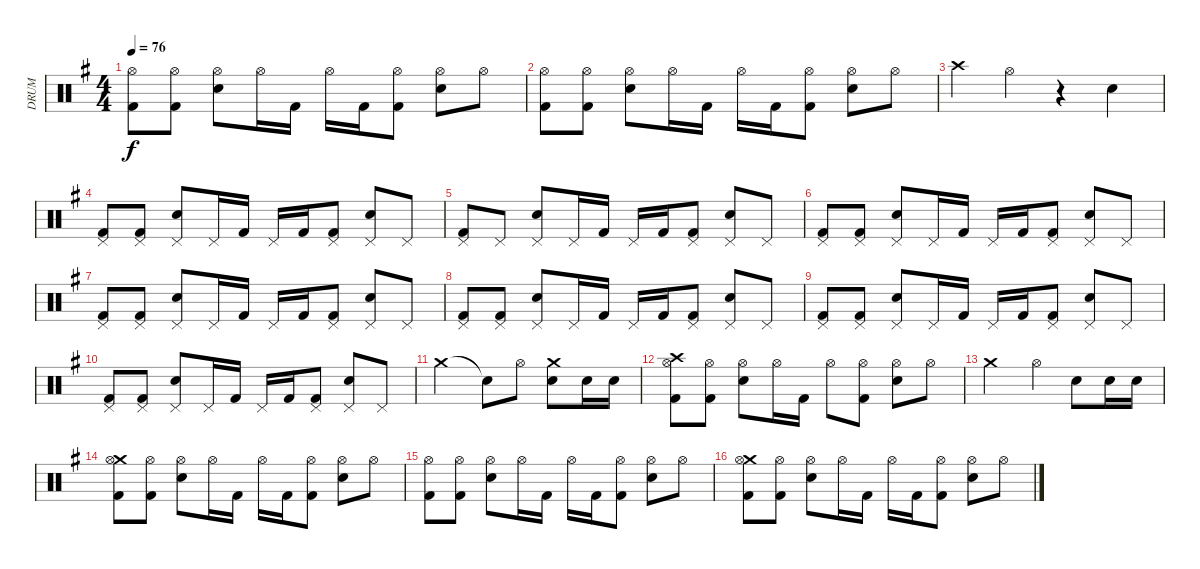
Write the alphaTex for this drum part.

\track ("DRUM" "DRUM") {instrument percussion}
\staff {score}
\articulation defaults
\ts (4 4)
\tempo 76
\clef neutral
\ks eminor
("Hi-Hat (open)" "Kick (hit) 2").8{dy f} ("Hi-Hat (open)" "Kick (hit) 2").8 ("Hi-Hat (open)" "Electric Snare (hit)").8 "Hi-Hat (open)".16 "Kick (hit) 2".16 "Hi-Hat (open)".16 "Kick (hit) 2".16 ("Hi-Hat (open)" "Kick (hit) 2").8 ("Hi-Hat (open)" "Electric Snare (hit)").8 "Hi-Hat (open)".8 |
("Hi-Hat (open)" "Kick (hit) 2").8 ("Hi-Hat (open)" "Kick (hit) 2").8 ("Hi-Hat (open)" "Electric Snare (hit)").8 "Hi-Hat (open)".16 "Kick (hit) 2".16 "Hi-Hat (open)".16 "Kick (hit) 2".16 ("Hi-Hat (open)" "Kick (hit) 2").8 ("Hi-Hat (open)" "Electric Snare (hit)").8 "Hi-Hat (open)".8 |
"Crash high (hit)".4 "Hi-Hat (open)".4 r.4 "Electric Snare (hit)".4 |
("Pedal Hi-Hat (hit)" "Kick (hit) 2").8 ("Pedal Hi-Hat (hit)" "Kick (hit) 2").8 ("Pedal Hi-Hat (hit)" "Electric Snare (hit)").8 "Pedal Hi-Hat (hit)".16 "Kick (hit) 2".16 "Pedal Hi-Hat (hit)".16 "Kick (hit) 2".16 ("Pedal Hi-Hat (hit)" "Kick (hit) 2").8 ("Pedal Hi-Hat (hit)" "Electric Snare (hit)").8 "Pedal Hi-Hat (hit)".8 |
("Pedal Hi-Hat (hit)" "Kick (hit) 2").8 "Pedal Hi-Hat (hit)".8 ("Pedal Hi-Hat (hit)" "Electric Snare (hit)").8 "Pedal Hi-Hat (hit)".16 "Kick (hit) 2".16 "Pedal Hi-Hat (hit)".16 "Kick (hit) 2".16 ("Pedal Hi-Hat (hit)" "Kick (hit) 2").8 ("Pedal Hi-Hat (hit)" "Electric Snare (hit)").8 "Pedal Hi-Hat (hit)".8 |
("Pedal Hi-Hat (hit)" "Kick (hit) 2").8 ("Pedal Hi-Hat (hit)" "Kick (hit) 2").8 ("Pedal Hi-Hat (hit)" "Electric Snare (hit)").8 "Pedal Hi-Hat (hit)".16 "Kick (hit) 2".16 "Pedal Hi-Hat (hit)".16 "Kick (hit) 2".16 ("Pedal Hi-Hat (hit)" "Kick (hit) 2").8 ("Pedal Hi-Hat (hit)" "Electric Snare (hit)").8 "Pedal Hi-Hat (hit)".8 |
("Pedal Hi-Hat (hit)" "Kick (hit) 2").8 ("Pedal Hi-Hat (hit)" "Kick (hit) 2").8 ("Pedal Hi-Hat (hit)" "Electric Snare (hit)").8 "Pedal Hi-Hat (hit)".16 "Kick (hit) 2".16 "Pedal Hi-Hat (hit)".16 "Kick (hit) 2".16 ("Pedal Hi-Hat (hit)" "Kick (hit) 2").8 ("Pedal Hi-Hat (hit)" "Electric Snare (hit)").8 "Pedal Hi-Hat (hit)".8 |
("Pedal Hi-Hat (hit)" "Kick (hit) 2").8 ("Pedal Hi-Hat (hit)" "Kick (hit) 2").8 ("Pedal Hi-Hat (hit)" "Electric Snare (hit)").8 "Pedal Hi-Hat (hit)".16 "Kick (hit) 2".16 "Pedal Hi-Hat (hit)".16 "Kick (hit) 2".16 ("Pedal Hi-Hat (hit)" "Kick (hit) 2").8 ("Pedal Hi-Hat (hit)" "Electric Snare (hit)").8 "Pedal Hi-Hat (hit)".8 |
("Pedal Hi-Hat (hit)" "Kick (hit) 2").8 ("Pedal Hi-Hat (hit)" "Kick (hit) 2").8 ("Pedal Hi-Hat (hit)" "Electric Snare (hit)").8 "Pedal Hi-Hat (hit)".16 "Kick (hit) 2".16 "Pedal Hi-Hat (hit)".16 "Kick (hit) 2".16 ("Pedal Hi-Hat (hit)" "Kick (hit) 2").8 ("Pedal Hi-Hat (hit)" "Electric Snare (hit)").8 "Pedal Hi-Hat (hit)".8 |
("Pedal Hi-Hat (hit)" "Kick (hit) 2").8 ("Pedal Hi-Hat (hit)" "Kick (hit) 2").8 ("Pedal Hi-Hat (hit)" "Electric Snare (hit)").8 "Pedal Hi-Hat (hit)".16 "Kick (hit) 2".16 "Pedal Hi-Hat (hit)".16 "Kick (hit) 2".16 ("Pedal Hi-Hat (hit)" "Kick (hit) 2").8 ("Pedal Hi-Hat (hit)" "Electric Snare (hit)").8 "Pedal Hi-Hat (hit)".8 |
"Crash medium (hit)".2 "Snare (hit)"{t}.8 "Hi-Hat (open)".8 ("Crash medium (hit)" "Electric Snare (hit)").8 "Electric Snare (hit)".16 "Electric Snare (hit)".16 |
("Crash high (hit)" "Hi-Hat (open)" "Kick (hit) 2").8 ("Hi-Hat (open)" "Kick (hit) 2").8 ("Hi-Hat (open)" "Electric Snare (hit)").8 "Hi-Hat (open)".16 "Kick (hit) 2".16 "Hi-Hat (open)".8 ("Hi-Hat (open)" "Kick (hit) 2").8 ("Hi-Hat (open)" "Electric Snare (hit)").8 "Hi-Hat (open)".8 |
"Crash medium (hit)".2 "Hi-Hat (open)".4 "Electric Snare (hit)".8 "Electric Snare (hit)".16 "Electric Snare (hit)".16 |
("Crash medium (hit)" "Hi-Hat (open)" "Kick (hit) 2").8 ("Hi-Hat (open)" "Kick (hit) 2").8 ("Hi-Hat (open)" "Electric Snare (hit)").8 "Hi-Hat (open)".16 "Kick (hit) 2".16 "Hi-Hat (open)".16 "Kick (hit) 2".16 ("Hi-Hat (open)" "Kick (hit) 2").8 ("Hi-Hat (open)" "Electric Snare (hit)").8 "Hi-Hat (open)".8 |
("Hi-Hat (open)" "Kick (hit) 2").8 ("Hi-Hat (open)" "Kick (hit) 2").8 ("Hi-Hat (open)" "Electric Snare (hit)").8 "Hi-Hat (open)".16 "Kick (hit) 2".16 "Hi-Hat (open)".16 "Kick (hit) 2".16 ("Hi-Hat (open)" "Kick (hit) 2").8 ("Hi-Hat (open)" "Electric Snare (hit)").8 "Hi-Hat (open)".8 |
("Crash medium (hit)" "Hi-Hat (open)" "Kick (hit) 2").8 ("Hi-Hat (open)" "Kick (hit) 2").8 ("Hi-Hat (open)" "Electric Snare (hit)").8 "Hi-Hat (open)".16 "Kick (hit) 2".16 "Hi-Hat (open)".16 "Kick (hit) 2".16 ("Hi-Hat (open)" "Kick (hit) 2").8 ("Hi-Hat (open)" "Electric Snare (hit)").8 "Hi-Hat (open)".8
